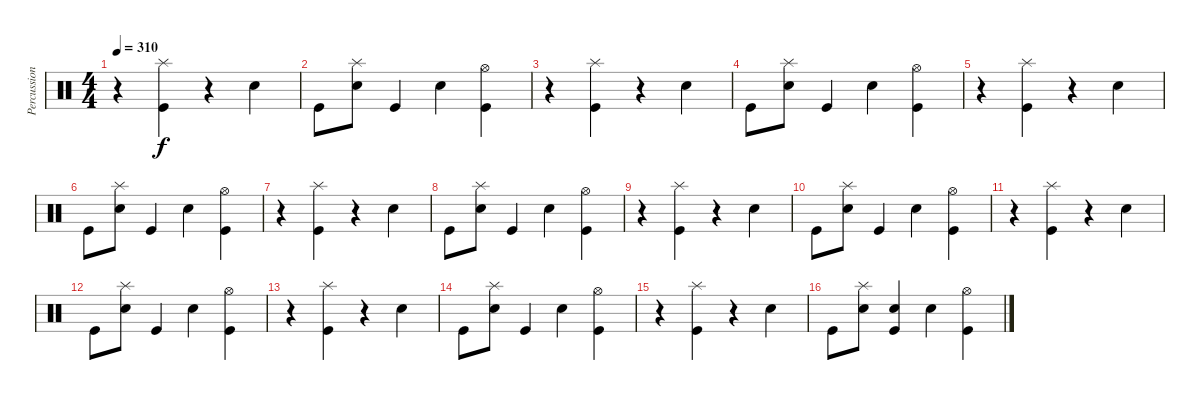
\track ("Percussion" "Percussion") {instrument percussion}
\staff {score}
\articulation defaults
\ts (4 4)
\tempo 310
\clef neutral
\ks c
r.4{dy f} ("Splash (hit)" "Kick (hit)").4 r.4 "Electric Snare (hit)".4 |
"Kick (hit)".8 ("Splash (hit)" "Electric Snare (hit)").8 "Kick (hit)".4 "Electric Snare (hit)".4 ("Hi-Hat (open)" "Kick (hit)").4 |
r.4 ("Splash (hit)" "Kick (hit)").4 r.4 "Electric Snare (hit)".4 |
"Kick (hit)".8 ("Splash (hit)" "Electric Snare (hit)").8 "Kick (hit)".4 "Electric Snare (hit)".4 ("Hi-Hat (open)" "Kick (hit)").4 |
r.4 ("Splash (hit)" "Kick (hit)").4 r.4 "Electric Snare (hit)".4 |
"Kick (hit)".8 ("Splash (hit)" "Electric Snare (hit)").8 "Kick (hit)".4 "Electric Snare (hit)".4 ("Hi-Hat (open)" "Kick (hit)").4 |
r.4 ("Splash (hit)" "Kick (hit)").4 r.4 "Electric Snare (hit)".4 |
"Kick (hit)".8 ("Splash (hit)" "Electric Snare (hit)").8 "Kick (hit)".4 "Electric Snare (hit)".4 ("Hi-Hat (open)" "Kick (hit)").4 |
r.4 ("Splash (hit)" "Kick (hit)").4 r.4 "Electric Snare (hit)".4 |
"Kick (hit)".8 ("Splash (hit)" "Electric Snare (hit)").8 "Kick (hit)".4 "Electric Snare (hit)".4 ("Hi-Hat (open)" "Kick (hit)").4 |
r.4 ("Splash (hit)" "Kick (hit)").4 r.4 "Electric Snare (hit)".4 |
"Kick (hit)".8 ("Splash (hit)" "Electric Snare (hit)").8 "Kick (hit)".4 "Electric Snare (hit)".4 ("Hi-Hat (open)" "Kick (hit)").4 |
r.4 ("Splash (hit)" "Kick (hit)").4 r.4 "Electric Snare (hit)".4 |
"Kick (hit)".8 ("Splash (hit)" "Electric Snare (hit)").8 "Kick (hit)".4 "Electric Snare (hit)".4 ("Hi-Hat (open)" "Kick (hit)").4 |
r.4 ("Splash (hit)" "Kick (hit)").4 r.4 "Electric Snare (hit)".4 |
"Kick (hit)".8 ("Splash (hit)" "Electric Snare (hit)").8 ("Electric Snare (hit)" "Kick (hit)").4 "Electric Snare (hit)".4 ("Hi-Hat (open)" "Kick (hit)").4
